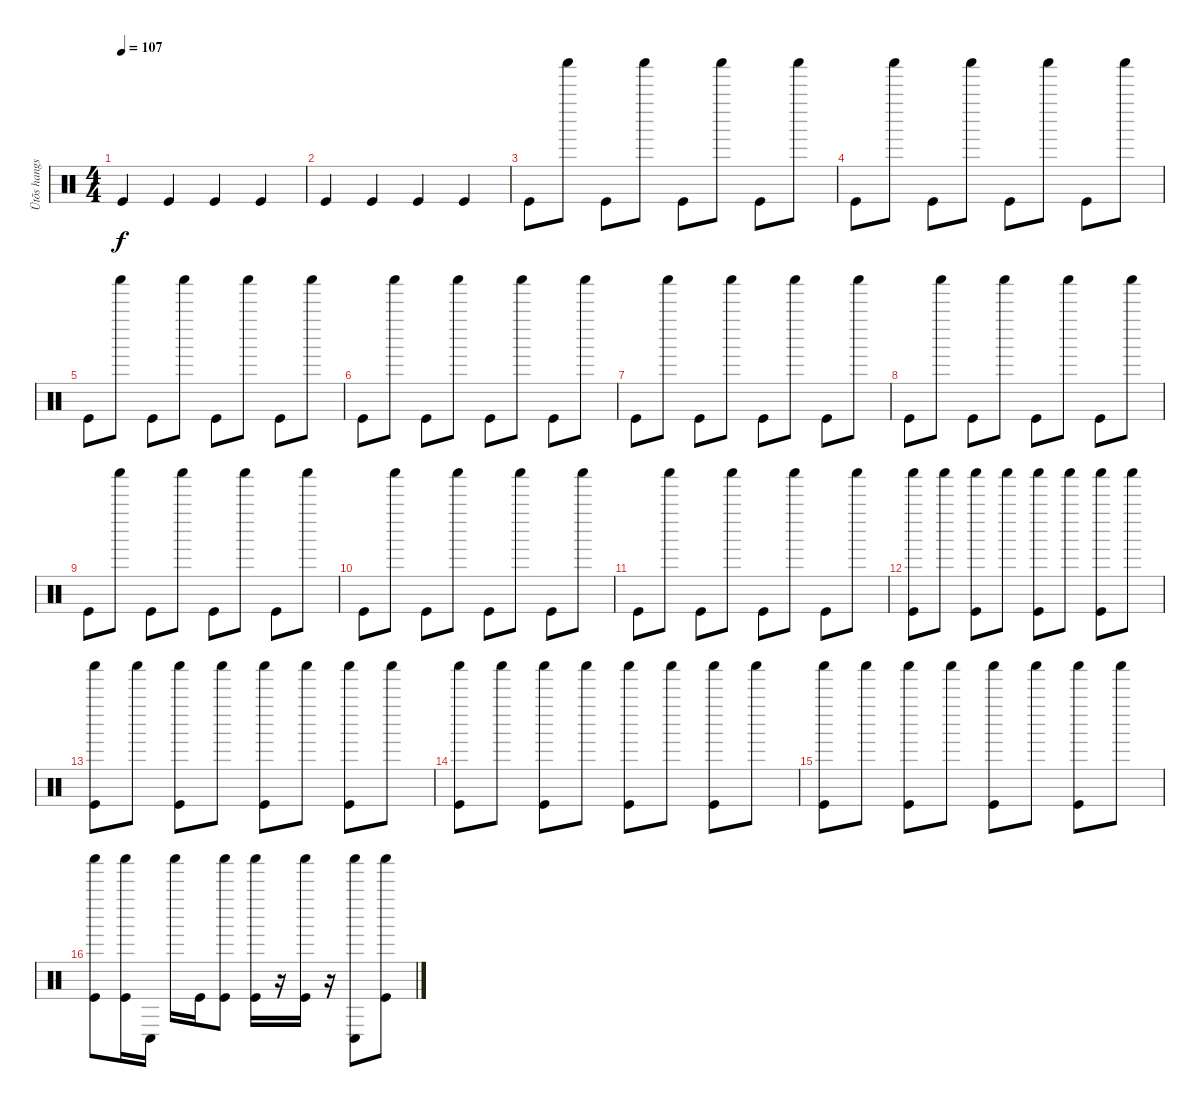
\track ("Ütõs hangszer" "Ütõs hangs") {instrument percussion}
\staff {score}
\articulation defaults
\ts (4 4)
\tempo 107
\clef neutral
\ks c "Kick (hit)".4{dy f} "Kick (hit)".4 "Kick (hit)".4 "Kick (hit)".4
|
"Kick (hit)".4 "Kick (hit)".4 "Kick (hit)".4 "Kick (hit)".4 |
"Kick (hit)".8 "Shaker (hit)".8 "Kick (hit)".8 "Shaker (hit)".8 "Kick (hit)".8 "Shaker (hit)".8 "Kick (hit)".8 "Shaker (hit)".8 |
"Kick (hit)".8 "Shaker (hit)".8 "Kick (hit)".8 "Shaker (hit)".8 "Kick (hit)".8 "Shaker (hit)".8 "Kick (hit)".8 "Shaker (hit)".8 |
"Kick (hit)".8 "Shaker (hit)".8 "Kick (hit)".8 "Shaker (hit)".8 "Kick (hit)".8 "Shaker (hit)".8 "Kick (hit)".8 "Shaker (hit)".8 |
"Kick (hit)".8 "Shaker (hit)".8 "Kick (hit)".8 "Shaker (hit)".8 "Kick (hit)".8 "Shaker (hit)".8 "Kick (hit)".8 "Shaker (hit)".8 |
"Kick (hit)".8 "Shaker (hit)".8 "Kick (hit)".8 "Shaker (hit)".8 "Kick (hit)".8 "Shaker (hit)".8 "Kick (hit)".8 "Shaker (hit)".8 |
"Kick (hit)".8 "Shaker (hit)".8 "Kick (hit)".8 "Shaker (hit)".8 "Kick (hit)".8 "Shaker (hit)".8 "Kick (hit)".8 "Shaker (hit)".8 |
"Kick (hit)".8 "Shaker (hit)".8 "Kick (hit)".8 "Shaker (hit)".8 "Kick (hit)".8 "Shaker (hit)".8 "Kick (hit)".8 "Shaker (hit)".8 |
"Kick (hit)".8 "Shaker (hit)".8 "Kick (hit)".8 "Shaker (hit)".8 "Kick (hit)".8 "Shaker (hit)".8 "Kick (hit)".8 "Shaker (hit)".8 |
"Kick (hit)".8 "Shaker (hit)".8 "Kick (hit)".8 "Shaker (hit)".8 "Kick (hit)".8 "Shaker (hit)".8 "Kick (hit)".8 "Shaker (hit)".8 |
("Shaker (hit)" "Kick (hit)").8 "Shaker (hit)".8 ("Shaker (hit)" "Kick (hit)").8 "Shaker (hit)".8 ("Shaker (hit)" "Kick (hit)").8 "Shaker (hit)".8 ("Shaker (hit)" "Kick (hit)").8 "Shaker (hit)".8 |
("Shaker (hit)" "Kick (hit)").8 "Shaker (hit)".8 ("Shaker (hit)" "Kick (hit)").8 "Shaker (hit)".8 ("Shaker (hit)" "Kick (hit)").8 "Shaker (hit)".8 ("Shaker (hit)" "Kick (hit)").8 "Shaker (hit)".8 |
("Shaker (hit)" "Kick (hit)").8 "Shaker (hit)".8 ("Shaker (hit)" "Kick (hit)").8 "Shaker (hit)".8 ("Shaker (hit)" "Kick (hit)").8 "Shaker (hit)".8 ("Shaker (hit)" "Kick (hit)").8 "Shaker (hit)".8 |
("Shaker (hit)" "Kick (hit)").8 "Shaker (hit)".8 ("Shaker (hit)" "Kick (hit)").8 "Shaker (hit)".8 ("Shaker (hit)" "Kick (hit)").8 "Shaker (hit)".8 ("Shaker (hit)" "Kick (hit)").8 "Shaker (hit)".8 |
("Shaker (hit)" "Kick (hit)").8 ("Shaker (hit)" "Kick (hit)").16 "Conga low (hit)".16 "Shaker (hit)".16 "Kick (hit)".16 ("Shaker (hit)" "Kick (hit)").8 ("Shaker (hit)" "Kick (hit)").16 r.16 ("Shaker (hit)" "Kick (hit)").16 r.16 ("Shaker (hit)" "Conga low (hit)").8 ("Shaker (hit)" "Kick (hit)").8
